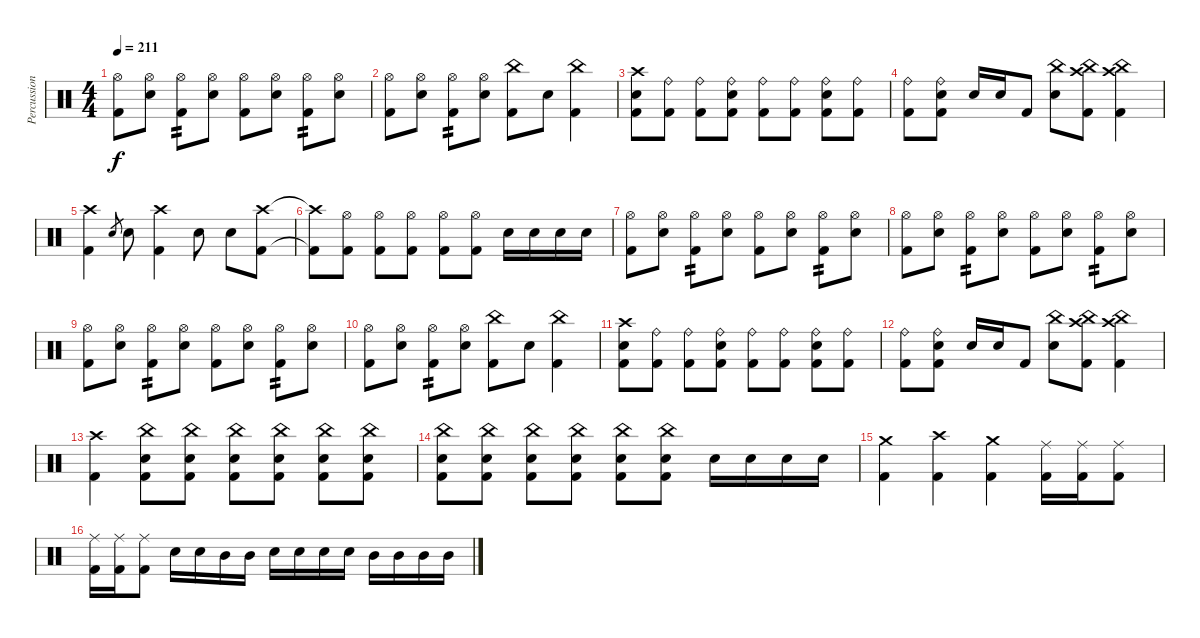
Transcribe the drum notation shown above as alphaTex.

\track ("Percussion" "Percussion") {instrument percussion}
\staff {score}
\articulation defaults
\ts (4 4)
\tempo 211
\clef neutral
\ks c
("Hi-Hat (open)" "Kick (hit) 2").8{dy f} ("Hi-Hat (open)" "Electric Snare (hit)").8 ("Hi-Hat (open)" "Kick (hit) 2").8{tp 2} ("Hi-Hat (open)" "Electric Snare (hit)").8 ("Hi-Hat (open)" "Kick (hit) 2").8 ("Hi-Hat (open)" "Electric Snare (hit)").8 ("Hi-Hat (open)" "Kick (hit) 2").8{tp 2} ("Hi-Hat (open)" "Electric Snare (hit)").8 |
("Hi-Hat (open)" "Kick (hit) 2").8 ("Hi-Hat (open)" "Electric Snare (hit)").8 ("Hi-Hat (open)" "Kick (hit) 2").8{tp 2} ("Hi-Hat (open)" "Electric Snare (hit)").8 ("China (hit)" "Kick (hit) 2").8 "Electric Snare (hit)".8 ("China (hit)" "Kick (hit) 2").4 |
("Kick (hit) 2" "Crash high (hit)" "Electric Snare (hit)").8 ("Kick (hit) 2" "Ride (bell)").8 ("Kick (hit) 2" "Ride (bell)").8 ("Kick (hit) 2" "Electric Snare (hit)" "Ride (bell)").8 ("Kick (hit) 2" "Ride (bell)").8 ("Kick (hit) 2" "Ride (bell)").8 ("Kick (hit) 2" "Electric Snare (hit)" "Ride (bell)").8 ("Kick (hit) 2" "Ride (bell)").8 |
("Ride (bell)" "Kick (hit) 2").8 ("Ride (bell)" "Electric Snare (hit)" "Kick (hit) 2").8 "Electric Snare (hit)".16 "Electric Snare (hit)".16 "Kick (hit) 2".8 ("China (hit)" "Electric Snare (hit)").8 ("China (hit)" "Crash high (hit)" "Kick (hit) 2").8 ("China (hit)" "Crash high (hit)" "Kick (hit) 2").4 |
("Kick (hit) 2" "Crash high (hit)").4 "Electric Snare (hit)".8{gr} "Electric Snare (hit)".8 ("Crash high (hit)" "Kick (hit) 2").4 "Electric Snare (hit)".8 "Electric Snare (hit)".8 ("Crash high (hit)" "Kick (hit) 2").8 |
("Crash high (hit)"{t} "Kick (hit) 2"{t}).8 ("Kick (hit) 2" "Hi-Hat (open)").8 ("Kick (hit) 2" "Hi-Hat (open)").8 ("Kick (hit) 2" "Hi-Hat (open)").8 ("Kick (hit) 2" "Hi-Hat (open)").8 ("Kick (hit) 2" "Hi-Hat (open)").8 "Electric Snare (hit)".16 "Electric Snare (hit)".16 "Electric Snare (hit)".16 "Electric Snare (hit)".16 |
("Hi-Hat (open)" "Kick (hit) 2").8 ("Hi-Hat (open)" "Electric Snare (hit)").8 ("Hi-Hat (open)" "Kick (hit) 2").8{tp 2} ("Hi-Hat (open)" "Electric Snare (hit)").8 ("Hi-Hat (open)" "Kick (hit) 2").8 ("Hi-Hat (open)" "Electric Snare (hit)").8 ("Hi-Hat (open)" "Kick (hit) 2").8{tp 2} ("Hi-Hat (open)" "Electric Snare (hit)").8 |
("Hi-Hat (open)" "Kick (hit) 2").8 ("Hi-Hat (open)" "Electric Snare (hit)").8 ("Hi-Hat (open)" "Kick (hit) 2").8{tp 2} ("Hi-Hat (open)" "Electric Snare (hit)").8 ("Hi-Hat (open)" "Kick (hit) 2").8 ("Hi-Hat (open)" "Electric Snare (hit)").8 ("Hi-Hat (open)" "Kick (hit) 2").8{tp 2} ("Hi-Hat (open)" "Electric Snare (hit)").8 |
("Hi-Hat (open)" "Kick (hit) 2").8 ("Hi-Hat (open)" "Electric Snare (hit)").8 ("Hi-Hat (open)" "Kick (hit) 2").8{tp 2} ("Hi-Hat (open)" "Electric Snare (hit)").8 ("Hi-Hat (open)" "Kick (hit) 2").8 ("Hi-Hat (open)" "Electric Snare (hit)").8 ("Hi-Hat (open)" "Kick (hit) 2").8{tp 2} ("Hi-Hat (open)" "Electric Snare (hit)").8 |
("Hi-Hat (open)" "Kick (hit) 2").8 ("Hi-Hat (open)" "Electric Snare (hit)").8 ("Hi-Hat (open)" "Kick (hit) 2").8{tp 2} ("Hi-Hat (open)" "Electric Snare (hit)").8 ("China (hit)" "Kick (hit) 2").8 "Electric Snare (hit)".8 ("China (hit)" "Kick (hit) 2").4 |
("Kick (hit) 2" "Crash high (hit)" "Electric Snare (hit)").8 ("Kick (hit) 2" "Ride (bell)").8 ("Kick (hit) 2" "Ride (bell)").8 ("Kick (hit) 2" "Electric Snare (hit)" "Ride (bell)").8 ("Kick (hit) 2" "Ride (bell)").8 ("Kick (hit) 2" "Ride (bell)").8 ("Kick (hit) 2" "Electric Snare (hit)" "Ride (bell)").8 ("Kick (hit) 2" "Ride (bell)").8 |
("Ride (bell)" "Kick (hit) 2").8 ("Ride (bell)" "Electric Snare (hit)" "Kick (hit) 2").8 "Electric Snare (hit)".16 "Electric Snare (hit)".16 "Kick (hit) 2".8 ("China (hit)" "Electric Snare (hit)").8 ("China (hit)" "Crash high (hit)" "Kick (hit) 2").8 ("China (hit)" "Crash high (hit)" "Kick (hit) 2").4 |
("Crash high (hit)" "Kick (hit) 2").4 ("China (hit)" "Kick (hit) 2" "Electric Snare (hit)").8 ("China (hit)" "Kick (hit) 2" "Electric Snare (hit)").8 ("China (hit)" "Kick (hit) 2" "Electric Snare (hit)").8 ("China (hit)" "Kick (hit) 2" "Electric Snare (hit)").8 ("China (hit)" "Kick (hit) 2" "Electric Snare (hit)").8 ("China (hit)" "Kick (hit) 2" "Electric Snare (hit)").8 |
("China (hit)" "Kick (hit) 2" "Electric Snare (hit)").8 ("China (hit)" "Kick (hit) 2" "Electric Snare (hit)").8 ("China (hit)" "Kick (hit) 2" "Electric Snare (hit)").8 ("China (hit)" "Kick (hit) 2" "Electric Snare (hit)").8 ("China (hit)" "Kick (hit) 2" "Electric Snare (hit)").8 ("China (hit)" "Kick (hit) 2" "Electric Snare (hit)").8 "Electric Snare (hit)".16 "Electric Snare (hit)".16 "Electric Snare (hit)".16 "Electric Snare (hit)".16 |
("Crash medium (hit)" "Kick (hit) 2").4 ("Crash high (hit)" "Kick (hit) 2").4 ("Crash medium (hit)" "Kick (hit) 2").4 ("Kick (hit) 2" "Ride (middle)").16 ("Kick (hit) 2" "Ride (middle)").16 ("Kick (hit) 2" "Ride (middle)").8 |
("Kick (hit) 2" "Ride (middle)").16 ("Kick (hit) 2" "Ride (middle)").16 ("Kick (hit) 2" "Ride (middle)").8 "Electric Snare (hit)".16 "Electric Snare (hit)".16 "Mid Tom (hit)".16 "Mid Tom (hit)".16 "Electric Snare (hit)".16 "Electric Snare (hit)".16 "Electric Snare (hit)".16 "Electric Snare (hit)".16 "Mid Tom (hit)".16 "Mid Tom (hit)".16 "Mid Tom (hit)".16 "Mid Tom (hit)".16
